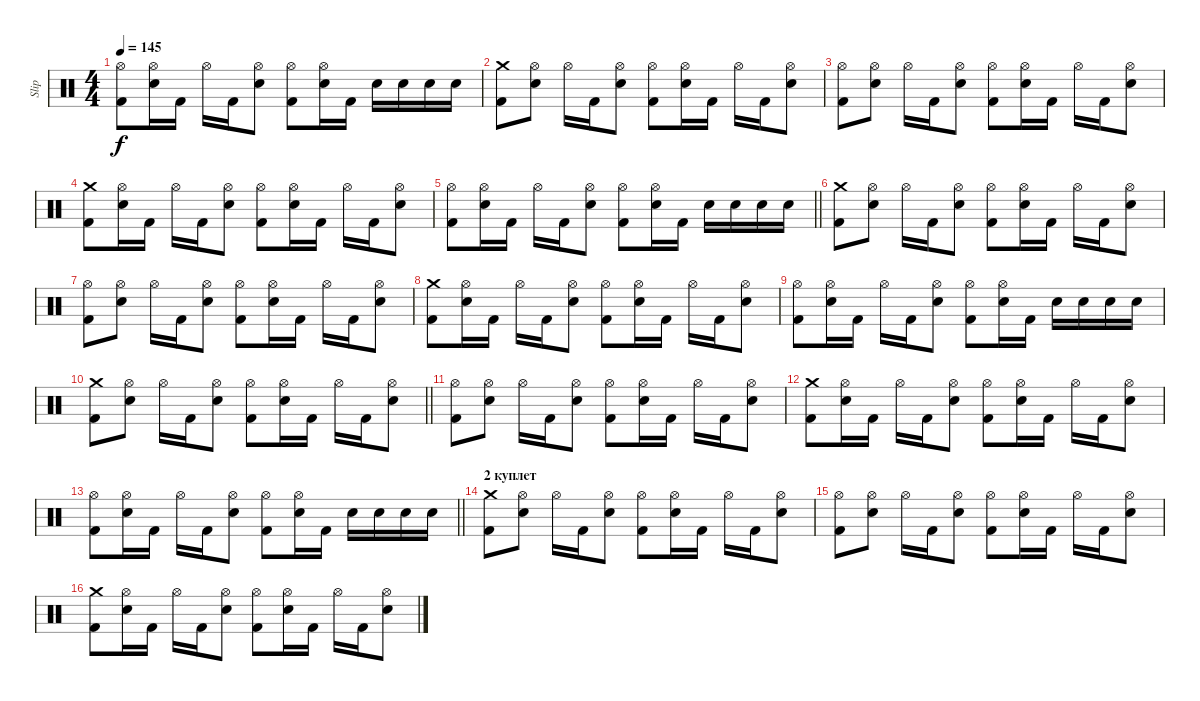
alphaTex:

\track ("Slip" "Slip") {instrument percussion}
\staff {score}
\articulation defaults
\ts (4 4)
\tempo 145
\clef neutral
\ks c
("Kick (hit) 2" "Hi-Hat (open)").8{dy f} ("Electric Snare (hit)" "Hi-Hat (open)").16 "Kick (hit) 2".16 "Hi-Hat (open)".16 "Kick (hit) 2".16 ("Electric Snare (hit)" "Hi-Hat (open)").8 ("Kick (hit) 2" "Hi-Hat (open)").8 ("Electric Snare (hit)" "Hi-Hat (open)").16 "Kick (hit) 2".16 "Electric Snare (hit)".16 "Electric Snare (hit)".16 "Electric Snare (hit)".16 "Electric Snare (hit)".16 |
("Kick (hit) 2" "Crash medium (hit)").8 ("Electric Snare (hit)" "Hi-Hat (open)").8 "Hi-Hat (open)".16 "Kick (hit) 2".16 ("Electric Snare (hit)" "Hi-Hat (open)").8 ("Kick (hit) 2" "Hi-Hat (open)").8 ("Electric Snare (hit)" "Hi-Hat (open)").16 "Kick (hit) 2".16 "Hi-Hat (open)".16 "Kick (hit) 2".16 ("Electric Snare (hit)" "Hi-Hat (open)").8 |
("Kick (hit) 2" "Hi-Hat (open)").8 ("Electric Snare (hit)" "Hi-Hat (open)").8 "Hi-Hat (open)".16 "Kick (hit) 2".16 ("Electric Snare (hit)" "Hi-Hat (open)").8 ("Kick (hit) 2" "Hi-Hat (open)").8 ("Electric Snare (hit)" "Hi-Hat (open)").16 "Kick (hit) 2".16 "Hi-Hat (open)".16 "Kick (hit) 2".16 ("Electric Snare (hit)" "Hi-Hat (open)").8 |
("Kick (hit) 2" "Crash medium (hit)").8 ("Electric Snare (hit)" "Hi-Hat (open)").16 "Kick (hit) 2".16 "Hi-Hat (open)".16 "Kick (hit) 2".16 ("Electric Snare (hit)" "Hi-Hat (open)").8 ("Kick (hit) 2" "Hi-Hat (open)").8 ("Electric Snare (hit)" "Hi-Hat (open)").16 "Kick (hit) 2".16 "Hi-Hat (open)".16 "Kick (hit) 2".16 ("Electric Snare (hit)" "Hi-Hat (open)").8 |
\barLineRight lightlight
("Kick (hit) 2" "Hi-Hat (open)").8 ("Electric Snare (hit)" "Hi-Hat (open)").16 "Kick (hit) 2".16 "Hi-Hat (open)".16 "Kick (hit) 2".16 ("Electric Snare (hit)" "Hi-Hat (open)").8 ("Kick (hit) 2" "Hi-Hat (open)").8 ("Electric Snare (hit)" "Hi-Hat (open)").16 "Kick (hit) 2".16 "Electric Snare (hit)".16 "Electric Snare (hit)".16 "Electric Snare (hit)".16 "Electric Snare (hit)".16 |
("Kick (hit) 2" "Crash medium (hit)").8 ("Electric Snare (hit)" "Hi-Hat (open)").8 "Hi-Hat (open)".16 "Kick (hit) 2".16 ("Electric Snare (hit)" "Hi-Hat (open)").8 ("Kick (hit) 2" "Hi-Hat (open)").8 ("Electric Snare (hit)" "Hi-Hat (open)").16 "Kick (hit) 2".16 "Hi-Hat (open)".16 "Kick (hit) 2".16 ("Electric Snare (hit)" "Hi-Hat (open)").8 |
("Kick (hit) 2" "Hi-Hat (open)").8 ("Electric Snare (hit)" "Hi-Hat (open)").8 "Hi-Hat (open)".16 "Kick (hit) 2".16 ("Electric Snare (hit)" "Hi-Hat (open)").8 ("Kick (hit) 2" "Hi-Hat (open)").8 ("Electric Snare (hit)" "Hi-Hat (open)").16 "Kick (hit) 2".16 "Hi-Hat (open)".16 "Kick (hit) 2".16 ("Electric Snare (hit)" "Hi-Hat (open)").8 |
("Kick (hit) 2" "Crash medium (hit)").8 ("Electric Snare (hit)" "Hi-Hat (open)").16 "Kick (hit) 2".16 "Hi-Hat (open)".16 "Kick (hit) 2".16 ("Electric Snare (hit)" "Hi-Hat (open)").8 ("Kick (hit) 2" "Hi-Hat (open)").8 ("Electric Snare (hit)" "Hi-Hat (open)").16 "Kick (hit) 2".16 "Hi-Hat (open)".16 "Kick (hit) 2".16 ("Electric Snare (hit)" "Hi-Hat (open)").8 |
("Kick (hit) 2" "Hi-Hat (open)").8 ("Electric Snare (hit)" "Hi-Hat (open)").16 "Kick (hit) 2".16 "Hi-Hat (open)".16 "Kick (hit) 2".16 ("Electric Snare (hit)" "Hi-Hat (open)").8 ("Kick (hit) 2" "Hi-Hat (open)").8 ("Electric Snare (hit)" "Hi-Hat (open)").16 "Kick (hit) 2".16 "Electric Snare (hit)".16 "Electric Snare (hit)".16 "Electric Snare (hit)".16 "Electric Snare (hit)".16 |
\barLineRight lightlight
("Kick (hit) 2" "Crash medium (hit)").8 ("Electric Snare (hit)" "Hi-Hat (open)").8 "Hi-Hat (open)".16 "Kick (hit) 2".16 ("Electric Snare (hit)" "Hi-Hat (open)").8 ("Kick (hit) 2" "Hi-Hat (open)").8 ("Electric Snare (hit)" "Hi-Hat (open)").16 "Kick (hit) 2".16 "Hi-Hat (open)".16 "Kick (hit) 2".16 ("Electric Snare (hit)" "Hi-Hat (open)").8 |
\section ("" "")
("Kick (hit) 2" "Hi-Hat (open)").8 ("Electric Snare (hit)" "Hi-Hat (open)").8 "Hi-Hat (open)".16 "Kick (hit) 2".16 ("Electric Snare (hit)" "Hi-Hat (open)").8 ("Kick (hit) 2" "Hi-Hat (open)").8 ("Electric Snare (hit)" "Hi-Hat (open)").16 "Kick (hit) 2".16 "Hi-Hat (open)".16 "Kick (hit) 2".16 ("Electric Snare (hit)" "Hi-Hat (open)").8 |
("Kick (hit) 2" "Crash medium (hit)").8 ("Electric Snare (hit)" "Hi-Hat (open)").16 "Kick (hit) 2".16 "Hi-Hat (open)".16 "Kick (hit) 2".16 ("Electric Snare (hit)" "Hi-Hat (open)").8 ("Kick (hit) 2" "Hi-Hat (open)").8 ("Electric Snare (hit)" "Hi-Hat (open)").16 "Kick (hit) 2".16 "Hi-Hat (open)".16 "Kick (hit) 2".16 ("Electric Snare (hit)" "Hi-Hat (open)").8 |
\barLineRight lightlight
("Kick (hit) 2" "Hi-Hat (open)").8 ("Electric Snare (hit)" "Hi-Hat (open)").16 "Kick (hit) 2".16 "Hi-Hat (open)".16 "Kick (hit) 2".16 ("Electric Snare (hit)" "Hi-Hat (open)").8 ("Kick (hit) 2" "Hi-Hat (open)").8 ("Electric Snare (hit)" "Hi-Hat (open)").16 "Kick (hit) 2".16 "Electric Snare (hit)".16 "Electric Snare (hit)".16 "Electric Snare (hit)".16 "Electric Snare (hit)".16 |
\section ("" "2 куплет")
("Kick (hit) 2" "Crash medium (hit)").8 ("Electric Snare (hit)" "Hi-Hat (open)").8 "Hi-Hat (open)".16 "Kick (hit) 2".16 ("Electric Snare (hit)" "Hi-Hat (open)").8 ("Kick (hit) 2" "Hi-Hat (open)").8 ("Electric Snare (hit)" "Hi-Hat (open)").16 "Kick (hit) 2".16 "Hi-Hat (open)".16 "Kick (hit) 2".16 ("Electric Snare (hit)" "Hi-Hat (open)").8 |
("Kick (hit) 2" "Hi-Hat (open)").8 ("Electric Snare (hit)" "Hi-Hat (open)").8 "Hi-Hat (open)".16 "Kick (hit) 2".16 ("Electric Snare (hit)" "Hi-Hat (open)").8 ("Kick (hit) 2" "Hi-Hat (open)").8 ("Electric Snare (hit)" "Hi-Hat (open)").16 "Kick (hit) 2".16 "Hi-Hat (open)".16 "Kick (hit) 2".16 ("Electric Snare (hit)" "Hi-Hat (open)").8 |
("Kick (hit) 2" "Crash medium (hit)").8 ("Electric Snare (hit)" "Hi-Hat (open)").16 "Kick (hit) 2".16 "Hi-Hat (open)".16 "Kick (hit) 2".16 ("Electric Snare (hit)" "Hi-Hat (open)").8 ("Kick (hit) 2" "Hi-Hat (open)").8 ("Electric Snare (hit)" "Hi-Hat (open)").16 "Kick (hit) 2".16 "Hi-Hat (open)".16 "Kick (hit) 2".16 ("Electric Snare (hit)" "Hi-Hat (open)").8
